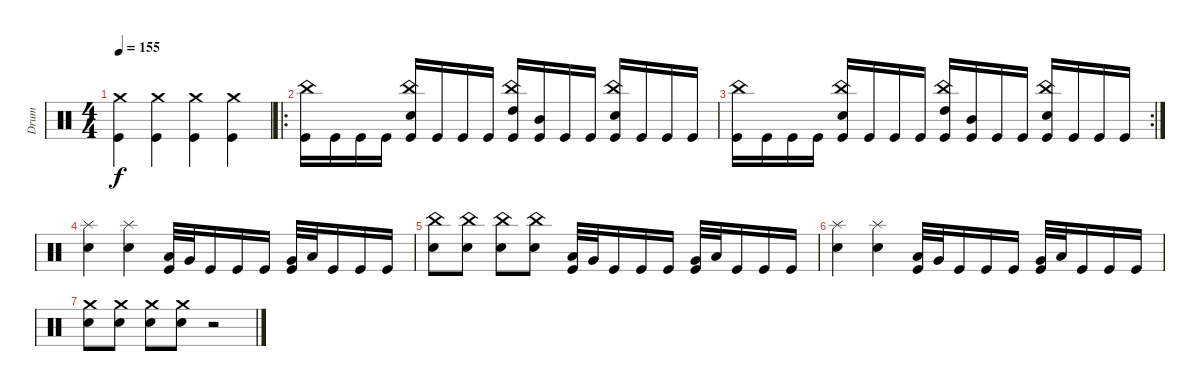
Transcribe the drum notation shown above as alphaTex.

\track ("Drum" "Drum") {instrument percussion}
\staff {score}
\articulation defaults
\ts (4 4)
\tempo 155
\clef neutral
\ks c
("Kick (hit)" "Crash medium (hit)").4{dy f} ("Kick (hit)" "Crash medium (hit)").4 ("Kick (hit)" "Crash medium (hit)").4 ("Kick (hit)" "Crash medium (hit)").4 |
\ro
("Kick (hit)" "China (hit)").16 "Kick (hit)".16 "Kick (hit)".16 "Kick (hit)".16 ("Kick (hit)" "Electric Snare (hit)" "China (hit)").16 "Kick (hit)".16 "Kick (hit)".16 "Kick (hit)".16 ("Kick (hit)" "High Tom (hit)" "China (hit)").16 ("Kick (hit)" "Mid Tom (hit)").16 "Kick (hit)".16 "Kick (hit)".16 ("Kick (hit)" "Electric Snare (hit)" "China (hit)").16 "Kick (hit)".16 "Kick (hit)".16 "Kick (hit)".16 |
\rc 2
("Kick (hit)" "China (hit)").16 "Kick (hit)".16 "Kick (hit)".16 "Kick (hit)".16 ("Kick (hit)" "Electric Snare (hit)" "China (hit)").16 "Kick (hit)".16 "Kick (hit)".16 "Kick (hit)".16 ("Kick (hit)" "High Tom (hit)" "China (hit)").16 ("Kick (hit)" "Mid Tom (hit)").16 "Kick (hit)".16 "Kick (hit)".16 ("Kick (hit)" "Electric Snare (hit)" "China (hit)").16 "Kick (hit)".16 "Kick (hit)".16 "Kick (hit)".16 |
("Electric Snare (hit)" "Splash (hit)").4 ("Electric Snare (hit)" "Splash (hit)").4 ("Kick (hit)" "Low Tom (hit)").32 "Very Low Tom (hit)".32 "Kick (hit)".16 "Kick (hit)".16 "Kick (hit)".16 ("Kick (hit)" "Very Low Tom (hit)").32 "Low Floor Tom (hit)".32 "Kick (hit)".16 "Kick (hit)".16 "Kick (hit)".16 |
("Electric Snare (hit)" "China (hit)").8 ("Electric Snare (hit)" "China (hit)").8 ("Electric Snare (hit)" "China (hit)").8 ("Electric Snare (hit)" "China (hit)").8 ("Kick (hit)" "Low Tom (hit)").32 "Very Low Tom (hit)".32 "Kick (hit)".16 "Kick (hit)".16 "Kick (hit)".16 ("Kick (hit)" "Very Low Tom (hit)").32 "Low Floor Tom (hit)".32 "Kick (hit)".16 "Kick (hit)".16 "Kick (hit)".16 |
("Electric Snare (hit)" "Splash (hit)").4 ("Electric Snare (hit)" "Splash (hit)").4 ("Kick (hit)" "Low Tom (hit)").32 "Very Low Tom (hit)".32 "Kick (hit)".16 "Kick (hit)".16 "Kick (hit)".16 ("Kick (hit)" "Very Low Tom (hit)").32 "Low Floor Tom (hit)".32 "Kick (hit)".16 "Kick (hit)".16 "Kick (hit)".16 |
("Electric Snare (hit)" "Crash medium (hit)").8 ("Electric Snare (hit)" "Crash medium (hit)").8 ("Electric Snare (hit)" "Crash medium (hit)").8 ("Electric Snare (hit)" "Crash medium (hit)").8 r.2
